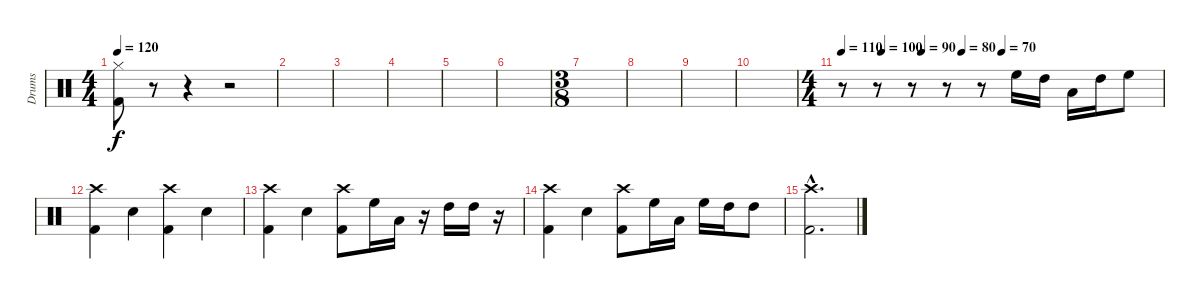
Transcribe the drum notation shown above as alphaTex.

\track ("Drums" "Drums") {instrument percussion}
\staff {score}
\articulation defaults
\ts (4 4)
\tempo 120
\clef neutral
\ks c
("Hi-Hat (closed)" "Kick (hit) 2").8{dy f} r.8 r.4 r.2 |
|
|
|
|
|
\ts (3 8)
|
|
|
|
\ts (4 4)
\tempo 110
\tempo (100 0.125)
\tempo (90 0.25)
\tempo (80 0.375)
\tempo (70 0.5)
r.8 r.8 r.8 r.8 r.8 "High Floor Tom (hit)".16 "High Tom (hit)".16 "Low Tom (hit)".16 "High Tom (hit)".16 "High Floor Tom (hit)".8 |
("Crash high (hit)" "Kick (hit) 2").4 "Snare (hit) 2".4 ("Crash high (hit)" "Kick (hit) 2").4 "Snare (hit) 2".4 |
("Crash high (hit)" "Kick (hit) 2").4 "Snare (hit) 2".4 ("Crash high (hit)" "Kick (hit) 2").8 "High Floor Tom (hit)".16 "Low Tom (hit)".16 r.16 "High Tom (hit)".16 "High Tom (hit)".16 r.16 |
("Crash high (hit)" "Kick (hit) 2").4 "Snare (hit) 2".4 ("Crash high (hit)" "Kick (hit) 2").8 "High Floor Tom (hit)".16 "Low Tom (hit)".16 "High Floor Tom (hit)".16 "High Tom (hit)".16 "High Tom (hit)".8 |
("Crash high (hit)"{hac} "Kick (hit) 2"{hac}).2{d}
